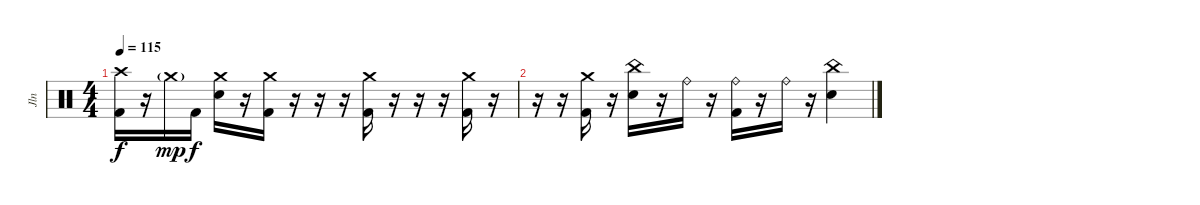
\track ("Jln" "Jln") {instrument percussion}
\staff {score}
\articulation defaults
\ts (4 4)
\tempo 115
\clef neutral
\ks c
("Crash high (hit)" "Kick (hit) 2").16{dy f} r.16 "Crash medium (hit)"{g}.16{dy mp} "Kick (hit) 2".16{dy f} ("Crash medium (hit)" "Electric Snare (hit)").16 r.16 ("Crash medium (hit)" "Kick (hit) 2").16 r.16 r.16 r.16 ("Crash medium (hit)" "Kick (hit) 2").16 r.16 r.16 r.16 ("Crash medium (hit)" "Kick (hit) 2").16 r.16 |
r.16 r.16 ("Crash medium (hit)" "Kick (hit) 2").16 r.16 ("China (hit)" "Electric Snare (hit)").16 r.16 "Ride (bell)".16 r.16 ("Ride (bell)" "Kick (hit) 2").16 r.16 "Ride (bell)".16 r.16 ("China (hit)" "Electric Snare (hit)").4
